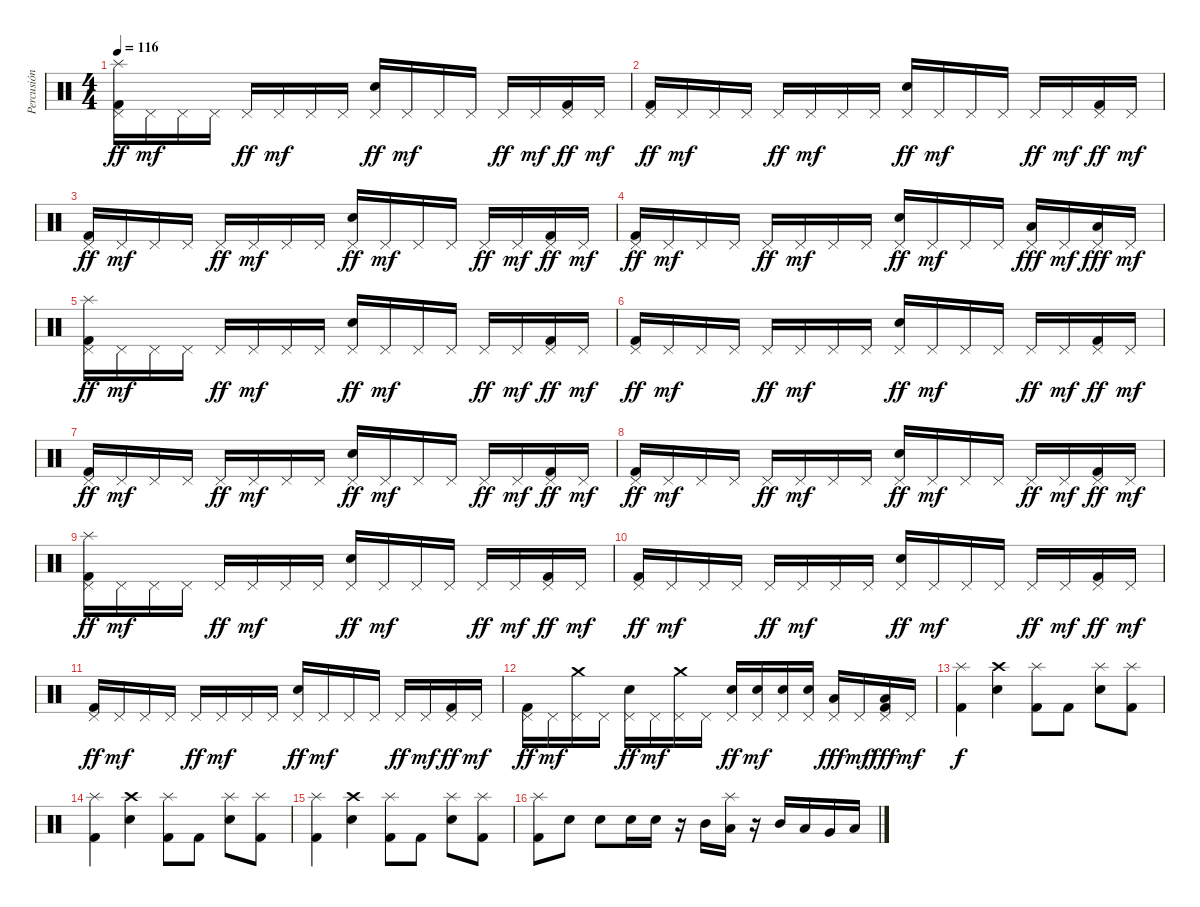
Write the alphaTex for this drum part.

\track ("Percusión" "Percusión") {instrument percussion}
\staff {score}
\articulation defaults
\ts (4 4)
\tempo 116
\clef neutral
\ks c
("Pedal Hi-Hat (hit)" "Kick (hit) 2" "Splash (hit)").16{dy ff} "Pedal Hi-Hat (hit)".16{dy mf} "Pedal Hi-Hat (hit)".16 "Pedal Hi-Hat (hit)".16 "Pedal Hi-Hat (hit)".16{dy ff} "Pedal Hi-Hat (hit)".16{dy mf} "Pedal Hi-Hat (hit)".16 "Pedal Hi-Hat (hit)".16 ("Pedal Hi-Hat (hit)" "Snare (hit) 2").16{dy ff} "Pedal Hi-Hat (hit)".16{dy mf} "Pedal Hi-Hat (hit)".16 "Pedal Hi-Hat (hit)".16 "Pedal Hi-Hat (hit)".16{dy ff} "Pedal Hi-Hat (hit)".16{dy mf} ("Pedal Hi-Hat (hit)" "Kick (hit) 2").16{dy ff} "Pedal Hi-Hat (hit)".16{dy mf} |
("Pedal Hi-Hat (hit)" "Kick (hit) 2").16{dy ff} "Pedal Hi-Hat (hit)".16{dy mf} "Pedal Hi-Hat (hit)".16 "Pedal Hi-Hat (hit)".16 "Pedal Hi-Hat (hit)".16{dy ff} "Pedal Hi-Hat (hit)".16{dy mf} "Pedal Hi-Hat (hit)".16 "Pedal Hi-Hat (hit)".16 ("Pedal Hi-Hat (hit)" "Snare (hit) 2").16{dy ff} "Pedal Hi-Hat (hit)".16{dy mf} "Pedal Hi-Hat (hit)".16 "Pedal Hi-Hat (hit)".16 "Pedal Hi-Hat (hit)".16{dy ff} "Pedal Hi-Hat (hit)".16{dy mf} ("Pedal Hi-Hat (hit)" "Kick (hit) 2").16{dy ff} "Pedal Hi-Hat (hit)".16{dy mf} |
("Pedal Hi-Hat (hit)" "Kick (hit) 2").16{dy ff} "Pedal Hi-Hat (hit)".16{dy mf} "Pedal Hi-Hat (hit)".16 "Pedal Hi-Hat (hit)".16 "Pedal Hi-Hat (hit)".16{dy ff} "Pedal Hi-Hat (hit)".16{dy mf} "Pedal Hi-Hat (hit)".16 "Pedal Hi-Hat (hit)".16 ("Pedal Hi-Hat (hit)" "Snare (hit) 2").16{dy ff} "Pedal Hi-Hat (hit)".16{dy mf} "Pedal Hi-Hat (hit)".16 "Pedal Hi-Hat (hit)".16 "Pedal Hi-Hat (hit)".16{dy ff} "Pedal Hi-Hat (hit)".16{dy mf} ("Pedal Hi-Hat (hit)" "Kick (hit) 2").16{dy ff} "Pedal Hi-Hat (hit)".16{dy mf} |
("Pedal Hi-Hat (hit)" "Kick (hit) 2").16{dy ff} "Pedal Hi-Hat (hit)".16{dy mf} "Pedal Hi-Hat (hit)".16 "Pedal Hi-Hat (hit)".16 "Pedal Hi-Hat (hit)".16{dy ff} "Pedal Hi-Hat (hit)".16{dy mf} "Pedal Hi-Hat (hit)".16 "Pedal Hi-Hat (hit)".16 ("Pedal Hi-Hat (hit)" "Snare (hit) 2").16{dy ff} "Pedal Hi-Hat (hit)".16{dy mf} "Pedal Hi-Hat (hit)".16 "Pedal Hi-Hat (hit)".16 ("Pedal Hi-Hat (hit)" "Low Floor Tom (hit)").16{dy fff} "Pedal Hi-Hat (hit)".16{dy mf} ("Pedal Hi-Hat (hit)" "Low Floor Tom (hit)").16{dy fff} "Pedal Hi-Hat (hit)".16{dy mf} |
("Pedal Hi-Hat (hit)" "Kick (hit) 2" "Splash (hit)").16{dy ff} "Pedal Hi-Hat (hit)".16{dy mf} "Pedal Hi-Hat (hit)".16 "Pedal Hi-Hat (hit)".16 "Pedal Hi-Hat (hit)".16{dy ff} "Pedal Hi-Hat (hit)".16{dy mf} "Pedal Hi-Hat (hit)".16 "Pedal Hi-Hat (hit)".16 ("Pedal Hi-Hat (hit)" "Snare (hit) 2").16{dy ff} "Pedal Hi-Hat (hit)".16{dy mf} "Pedal Hi-Hat (hit)".16 "Pedal Hi-Hat (hit)".16 "Pedal Hi-Hat (hit)".16{dy ff} "Pedal Hi-Hat (hit)".16{dy mf} ("Pedal Hi-Hat (hit)" "Kick (hit) 2").16{dy ff} "Pedal Hi-Hat (hit)".16{dy mf} |
("Pedal Hi-Hat (hit)" "Kick (hit) 2").16{dy ff} "Pedal Hi-Hat (hit)".16{dy mf} "Pedal Hi-Hat (hit)".16 "Pedal Hi-Hat (hit)".16 "Pedal Hi-Hat (hit)".16{dy ff} "Pedal Hi-Hat (hit)".16{dy mf} "Pedal Hi-Hat (hit)".16 "Pedal Hi-Hat (hit)".16 ("Pedal Hi-Hat (hit)" "Snare (hit) 2").16{dy ff} "Pedal Hi-Hat (hit)".16{dy mf} "Pedal Hi-Hat (hit)".16 "Pedal Hi-Hat (hit)".16 "Pedal Hi-Hat (hit)".16{dy ff} "Pedal Hi-Hat (hit)".16{dy mf} ("Pedal Hi-Hat (hit)" "Kick (hit) 2").16{dy ff} "Pedal Hi-Hat (hit)".16{dy mf} |
("Pedal Hi-Hat (hit)" "Kick (hit) 2").16{dy ff} "Pedal Hi-Hat (hit)".16{dy mf} "Pedal Hi-Hat (hit)".16 "Pedal Hi-Hat (hit)".16 "Pedal Hi-Hat (hit)".16{dy ff} "Pedal Hi-Hat (hit)".16{dy mf} "Pedal Hi-Hat (hit)".16 "Pedal Hi-Hat (hit)".16 ("Pedal Hi-Hat (hit)" "Snare (hit) 2").16{dy ff} "Pedal Hi-Hat (hit)".16{dy mf} "Pedal Hi-Hat (hit)".16 "Pedal Hi-Hat (hit)".16 "Pedal Hi-Hat (hit)".16{dy ff} "Pedal Hi-Hat (hit)".16{dy mf} ("Pedal Hi-Hat (hit)" "Kick (hit) 2").16{dy ff} "Pedal Hi-Hat (hit)".16{dy mf} |
("Pedal Hi-Hat (hit)" "Kick (hit) 2").16{dy ff} "Pedal Hi-Hat (hit)".16{dy mf} "Pedal Hi-Hat (hit)".16 "Pedal Hi-Hat (hit)".16 "Pedal Hi-Hat (hit)".16{dy ff} "Pedal Hi-Hat (hit)".16{dy mf} "Pedal Hi-Hat (hit)".16 "Pedal Hi-Hat (hit)".16 ("Pedal Hi-Hat (hit)" "Snare (hit) 2").16{dy ff} "Pedal Hi-Hat (hit)".16{dy mf} "Pedal Hi-Hat (hit)".16 "Pedal Hi-Hat (hit)".16 "Pedal Hi-Hat (hit)".16{dy ff} "Pedal Hi-Hat (hit)".16{dy mf} ("Pedal Hi-Hat (hit)" "Kick (hit) 2").16{dy ff} "Pedal Hi-Hat (hit)".16{dy mf} |
("Pedal Hi-Hat (hit)" "Kick (hit) 2" "Splash (hit)").16{dy ff} "Pedal Hi-Hat (hit)".16{dy mf} "Pedal Hi-Hat (hit)".16 "Pedal Hi-Hat (hit)".16 "Pedal Hi-Hat (hit)".16{dy ff} "Pedal Hi-Hat (hit)".16{dy mf} "Pedal Hi-Hat (hit)".16 "Pedal Hi-Hat (hit)".16 ("Pedal Hi-Hat (hit)" "Snare (hit) 2").16{dy ff} "Pedal Hi-Hat (hit)".16{dy mf} "Pedal Hi-Hat (hit)".16 "Pedal Hi-Hat (hit)".16 "Pedal Hi-Hat (hit)".16{dy ff} "Pedal Hi-Hat (hit)".16{dy mf} ("Pedal Hi-Hat (hit)" "Kick (hit) 2").16{dy ff} "Pedal Hi-Hat (hit)".16{dy mf} |
("Pedal Hi-Hat (hit)" "Kick (hit) 2").16{dy ff} "Pedal Hi-Hat (hit)".16{dy mf} "Pedal Hi-Hat (hit)".16 "Pedal Hi-Hat (hit)".16 "Pedal Hi-Hat (hit)".16{dy ff} "Pedal Hi-Hat (hit)".16{dy mf} "Pedal Hi-Hat (hit)".16 "Pedal Hi-Hat (hit)".16 ("Pedal Hi-Hat (hit)" "Snare (hit) 2").16{dy ff} "Pedal Hi-Hat (hit)".16{dy mf} "Pedal Hi-Hat (hit)".16 "Pedal Hi-Hat (hit)".16 "Pedal Hi-Hat (hit)".16{dy ff} "Pedal Hi-Hat (hit)".16{dy mf} ("Pedal Hi-Hat (hit)" "Kick (hit) 2").16{dy ff} "Pedal Hi-Hat (hit)".16{dy mf} |
("Pedal Hi-Hat (hit)" "Kick (hit) 2").16{dy ff} "Pedal Hi-Hat (hit)".16{dy mf} "Pedal Hi-Hat (hit)".16 "Pedal Hi-Hat (hit)".16 "Pedal Hi-Hat (hit)".16{dy ff} "Pedal Hi-Hat (hit)".16{dy mf} "Pedal Hi-Hat (hit)".16 "Pedal Hi-Hat (hit)".16 ("Pedal Hi-Hat (hit)" "Snare (hit) 2").16{dy ff} "Pedal Hi-Hat (hit)".16{dy mf} "Pedal Hi-Hat (hit)".16 "Pedal Hi-Hat (hit)".16 "Pedal Hi-Hat (hit)".16{dy ff} "Pedal Hi-Hat (hit)".16{dy mf} ("Pedal Hi-Hat (hit)" "Kick (hit) 2").16{dy ff} "Pedal Hi-Hat (hit)".16{dy mf} |
("Pedal Hi-Hat (hit)" "Kick (hit) 2").16{dy ff} "Pedal Hi-Hat (hit)".16{dy mf} ("Pedal Hi-Hat (hit)" "Crash medium (hit)").16 "Pedal Hi-Hat (hit)".16 ("Pedal Hi-Hat (hit)" "Snare (hit) 2").16{dy ff} "Pedal Hi-Hat (hit)".16{dy mf} ("Pedal Hi-Hat (hit)" "Crash medium (hit)").16 "Pedal Hi-Hat (hit)".16 ("Pedal Hi-Hat (hit)" "Snare (hit) 2").16{dy ff} ("Pedal Hi-Hat (hit)" "Snare (hit) 2").16{dy mf} ("Pedal Hi-Hat (hit)" "Snare (hit) 2").16 ("Pedal Hi-Hat (hit)" "Snare (hit) 2").16 ("Pedal Hi-Hat (hit)" "Low Floor Tom (hit)").16{dy fff} "Pedal Hi-Hat (hit)".16{dy mf} ("Pedal Hi-Hat (hit)" "Kick (hit) 2" "Low Floor Tom (hit)").16{dy fff} "Pedal Hi-Hat (hit)".16{dy mf} |
("Splash (hit)" "Kick (hit) 2").4{dy f} ("Crash high (hit)" "Snare (hit) 2").4 ("Splash (hit)" "Kick (hit) 2").8 "Kick (hit) 2".8 ("Splash (hit)" "Snare (hit) 2").8 ("Splash (hit)" "Kick (hit) 2").8 |
("Splash (hit)" "Kick (hit) 2").4 ("Crash high (hit)" "Snare (hit) 2").4 ("Splash (hit)" "Kick (hit) 2").8 "Kick (hit) 2".8 ("Splash (hit)" "Snare (hit) 2").8 ("Splash (hit)" "Kick (hit) 2").8 |
("Splash (hit)" "Kick (hit) 2").4 ("Crash high (hit)" "Snare (hit) 2").4 ("Splash (hit)" "Kick (hit) 2").8 "Kick (hit) 2".8 ("Splash (hit)" "Snare (hit) 2").8 ("Splash (hit)" "Kick (hit) 2").8 |
("Splash (hit)" "Kick (hit) 2").8 "Snare (hit) 2".8 "Snare (hit) 2".8 "Snare (hit) 2".16 "Snare (hit) 2".16 r.16 "Mid Tom (hit)".16 ("Low Tom (hit)" "Splash (hit)").16 r.16 "Mid Tom (hit)".16 "Low Tom (hit)".16 "Very Low Tom (hit)".16 "Low Floor Tom (hit)".16
